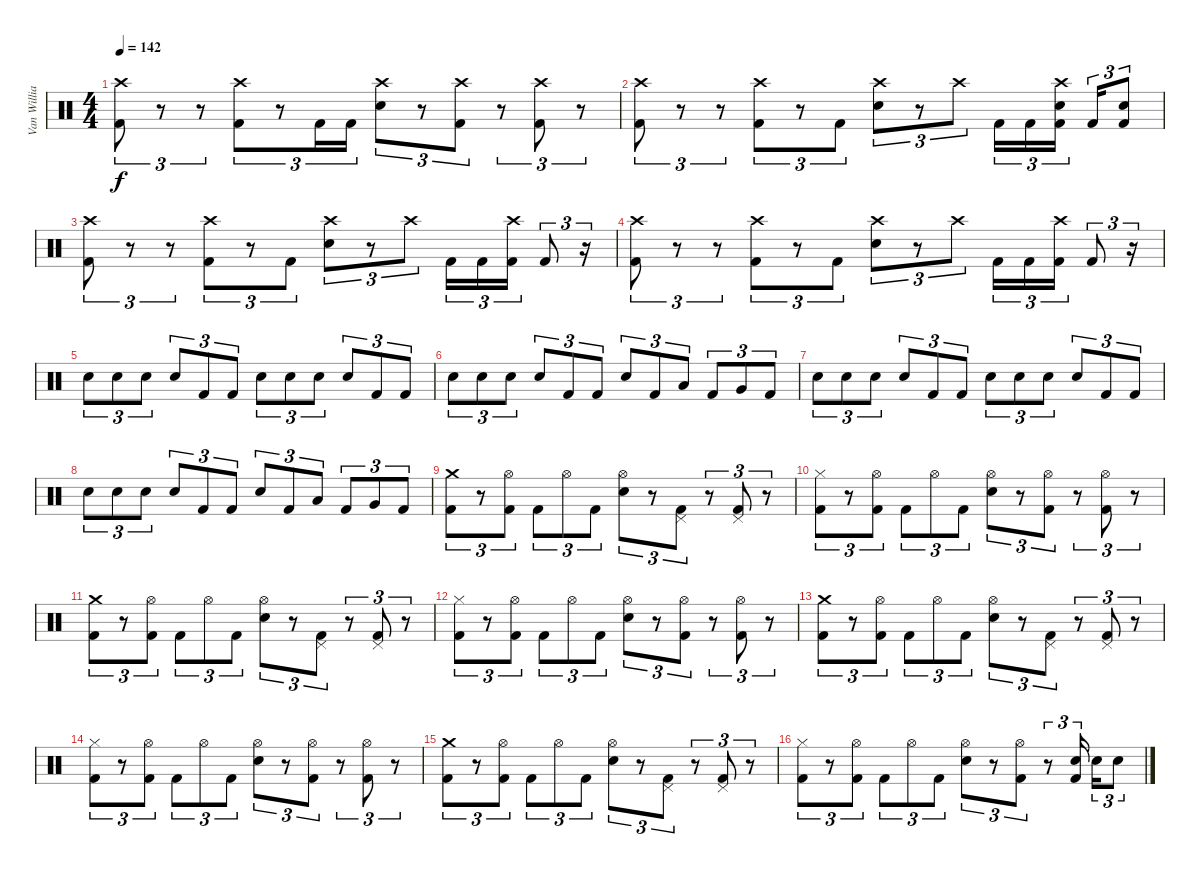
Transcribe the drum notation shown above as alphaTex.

\track ("Van Williams" "Van Willia") {instrument percussion}
\staff {score}
\articulation defaults
\ts (4 4)
\tempo 142
\clef neutral
\ks c
("Crash high (hit)" "Kick (hit) 2").8{tu (3 2) dy f} r.8{tu (3 2)} r.8{tu (3 2)} ("Crash high (hit)" "Kick (hit) 2").8{tu (3 2)} r.8{tu (3 2)} "Kick (hit) 2".16{tu (3 2)} "Kick (hit) 2".16{tu (3 2)} ("Crash high (hit)" "Electric Snare (hit)").8{tu (3 2)} r.8{tu (3 2)} ("Crash high (hit)" "Kick (hit) 2").8{tu (3 2)} r.8{tu (3 2)} ("Crash high (hit)" "Kick (hit) 2").8{tu (3 2)} r.8{tu (3 2)} |
("Crash high (hit)" "Kick (hit) 2").8{tu (3 2)} r.8{tu (3 2)} r.8{tu (3 2)} ("Crash high (hit)" "Kick (hit) 2").8{tu (3 2)} r.8{tu (3 2)} "Kick (hit) 2".8{tu (3 2)} ("Crash high (hit)" "Electric Snare (hit)").8{tu (3 2)} r.8{tu (3 2)} "Crash high (hit)".8{tu (3 2)} "Kick (hit) 2".16{tu (3 2)} "Kick (hit) 2".16{tu (3 2)} ("Crash high (hit)" "Kick (hit) 2" "Electric Snare (hit)").16{tu (3 2)} "Kick (hit) 2".16{tu (3 2)} ("Kick (hit) 2" "Electric Snare (hit)").8{tu (3 2)} |
("Crash high (hit)" "Kick (hit) 2").8{tu (3 2)} r.8{tu (3 2)} r.8{tu (3 2)} ("Crash high (hit)" "Kick (hit) 2").8{tu (3 2)} r.8{tu (3 2)} "Kick (hit) 2".8{tu (3 2)} ("Crash high (hit)" "Electric Snare (hit)").8{tu (3 2)} r.8{tu (3 2)} "Crash high (hit)".8{tu (3 2)} "Kick (hit) 2".16{tu (3 2)} "Kick (hit) 2".16{tu (3 2)} ("Crash high (hit)" "Kick (hit) 2").16{tu (3 2)} "Kick (hit) 2".8{tu (3 2)} r.16{tu (3 2)} |
("Crash high (hit)" "Kick (hit) 2").8{tu (3 2)} r.8{tu (3 2)} r.8{tu (3 2)} ("Crash high (hit)" "Kick (hit) 2").8{tu (3 2)} r.8{tu (3 2)} "Kick (hit) 2".8{tu (3 2)} ("Crash high (hit)" "Electric Snare (hit)").8{tu (3 2)} r.8{tu (3 2)} "Crash high (hit)".8{tu (3 2)} "Kick (hit) 2".16{tu (3 2)} "Kick (hit) 2".16{tu (3 2)} ("Crash high (hit)" "Kick (hit) 2").16{tu (3 2)} "Kick (hit) 2".8{tu (3 2)} r.16{tu (3 2)} |
"Electric Snare (hit)".8{tu (3 2)} "Electric Snare (hit)".8{tu (3 2)} "Electric Snare (hit)".8{tu (3 2)} "Electric Snare (hit)".8{tu (3 2)} "Kick (hit) 2".8{tu (3 2)} "Kick (hit) 2".8{tu (3 2)} "Electric Snare (hit)".8{tu (3 2)} "Electric Snare (hit)".8{tu (3 2)} "Electric Snare (hit)".8{tu (3 2)} "Electric Snare (hit)".8{tu (3 2)} "Kick (hit) 2".8{tu (3 2)} "Kick (hit) 2".8{tu (3 2)} |
"Electric Snare (hit)".8{tu (3 2)} "Electric Snare (hit)".8{tu (3 2)} "Electric Snare (hit)".8{tu (3 2)} "Electric Snare (hit)".8{tu (3 2)} "Kick (hit) 2".8{tu (3 2)} "Kick (hit) 2".8{tu (3 2)} "Electric Snare (hit)".8{tu (3 2)} "Kick (hit) 2".8{tu (3 2)} "Low Tom (hit)".8{tu (3 2)} "Kick (hit) 2".8{tu (3 2)} "Very Low Tom (hit)".8{tu (3 2)} "Kick (hit) 2".8{tu (3 2)} |
"Electric Snare (hit)".8{tu (3 2)} "Electric Snare (hit)".8{tu (3 2)} "Electric Snare (hit)".8{tu (3 2)} "Electric Snare (hit)".8{tu (3 2)} "Kick (hit) 2".8{tu (3 2)} "Kick (hit) 2".8{tu (3 2)} "Electric Snare (hit)".8{tu (3 2)} "Electric Snare (hit)".8{tu (3 2)} "Electric Snare (hit)".8{tu (3 2)} "Electric Snare (hit)".8{tu (3 2)} "Kick (hit) 2".8{tu (3 2)} "Kick (hit) 2".8{tu (3 2)} |
"Electric Snare (hit)".8{tu (3 2)} "Electric Snare (hit)".8{tu (3 2)} "Electric Snare (hit)".8{tu (3 2)} "Electric Snare (hit)".8{tu (3 2)} "Kick (hit) 2".8{tu (3 2)} "Kick (hit) 2".8{tu (3 2)} "Electric Snare (hit)".8{tu (3 2)} "Kick (hit) 2".8{tu (3 2)} "Low Tom (hit)".8{tu (3 2)} "Kick (hit) 2".8{tu (3 2)} "Very Low Tom (hit)".8{tu (3 2)} "Kick (hit) 2".8{tu (3 2)} |
("Crash medium (hit)" "Kick (hit) 2").8{tu (3 2)} r.8{tu (3 2)} ("Hi-Hat (open)" "Kick (hit) 2").8{tu (3 2)} "Kick (hit) 2".8{tu (3 2)} "Hi-Hat (open)".8{tu (3 2)} "Kick (hit) 2".8{tu (3 2)} ("Hi-Hat (open)" "Electric Snare (hit)").8{tu (3 2)} r.8{tu (3 2)} ("Pedal Hi-Hat (hit)" "Kick (hit) 2").8{tu (3 2)} r.8{tu (3 2)} ("Pedal Hi-Hat (hit)" "Kick (hit) 2").8{tu (3 2)} r.8{tu (3 2)} |
("Hi-Hat (closed)" "Kick (hit) 2").8{tu (3 2)} r.8{tu (3 2)} ("Hi-Hat (open)" "Kick (hit) 2").8{tu (3 2)} "Kick (hit) 2".8{tu (3 2)} "Hi-Hat (open)".8{tu (3 2)} "Kick (hit) 2".8{tu (3 2)} ("Hi-Hat (open)" "Electric Snare (hit)").8{tu (3 2)} r.8{tu (3 2)} ("Hi-Hat (open)" "Kick (hit) 2").8{tu (3 2)} r.8{tu (3 2)} ("Hi-Hat (open)" "Kick (hit) 2").8{tu (3 2)} r.8{tu (3 2)} |
("Crash medium (hit)" "Kick (hit) 2").8{tu (3 2)} r.8{tu (3 2)} ("Hi-Hat (open)" "Kick (hit) 2").8{tu (3 2)} "Kick (hit) 2".8{tu (3 2)} "Hi-Hat (open)".8{tu (3 2)} "Kick (hit) 2".8{tu (3 2)} ("Hi-Hat (open)" "Electric Snare (hit)").8{tu (3 2)} r.8{tu (3 2)} ("Pedal Hi-Hat (hit)" "Kick (hit) 2").8{tu (3 2)} r.8{tu (3 2)} ("Pedal Hi-Hat (hit)" "Kick (hit) 2").8{tu (3 2)} r.8{tu (3 2)} |
("Hi-Hat (closed)" "Kick (hit) 2").8{tu (3 2)} r.8{tu (3 2)} ("Hi-Hat (open)" "Kick (hit) 2").8{tu (3 2)} "Kick (hit) 2".8{tu (3 2)} "Hi-Hat (open)".8{tu (3 2)} "Kick (hit) 2".8{tu (3 2)} ("Hi-Hat (open)" "Electric Snare (hit)").8{tu (3 2)} r.8{tu (3 2)} ("Hi-Hat (open)" "Kick (hit) 2").8{tu (3 2)} r.8{tu (3 2)} ("Hi-Hat (open)" "Kick (hit) 2").8{tu (3 2)} r.8{tu (3 2)} |
("Crash medium (hit)" "Kick (hit) 2").8{tu (3 2)} r.8{tu (3 2)} ("Hi-Hat (open)" "Kick (hit) 2").8{tu (3 2)} "Kick (hit) 2".8{tu (3 2)} "Hi-Hat (open)".8{tu (3 2)} "Kick (hit) 2".8{tu (3 2)} ("Hi-Hat (open)" "Electric Snare (hit)").8{tu (3 2)} r.8{tu (3 2)} ("Pedal Hi-Hat (hit)" "Kick (hit) 2").8{tu (3 2)} r.8{tu (3 2)} ("Pedal Hi-Hat (hit)" "Kick (hit) 2").8{tu (3 2)} r.8{tu (3 2)} |
("Hi-Hat (closed)" "Kick (hit) 2").8{tu (3 2)} r.8{tu (3 2)} ("Hi-Hat (open)" "Kick (hit) 2").8{tu (3 2)} "Kick (hit) 2".8{tu (3 2)} "Hi-Hat (open)".8{tu (3 2)} "Kick (hit) 2".8{tu (3 2)} ("Hi-Hat (open)" "Electric Snare (hit)").8{tu (3 2)} r.8{tu (3 2)} ("Hi-Hat (open)" "Kick (hit) 2").8{tu (3 2)} r.8{tu (3 2)} ("Hi-Hat (open)" "Kick (hit) 2").8{tu (3 2)} r.8{tu (3 2)} |
("Crash medium (hit)" "Kick (hit) 2").8{tu (3 2)} r.8{tu (3 2)} ("Hi-Hat (open)" "Kick (hit) 2").8{tu (3 2)} "Kick (hit) 2".8{tu (3 2)} "Hi-Hat (open)".8{tu (3 2)} "Kick (hit) 2".8{tu (3 2)} ("Hi-Hat (open)" "Electric Snare (hit)").8{tu (3 2)} r.8{tu (3 2)} ("Pedal Hi-Hat (hit)" "Kick (hit) 2").8{tu (3 2)} r.8{tu (3 2)} ("Pedal Hi-Hat (hit)" "Kick (hit) 2").8{tu (3 2)} r.8{tu (3 2)} |
("Hi-Hat (closed)" "Kick (hit) 2").8{tu (3 2)} r.8{tu (3 2)} ("Hi-Hat (open)" "Kick (hit) 2").8{tu (3 2)} "Kick (hit) 2".8{tu (3 2)} "Hi-Hat (open)".8{tu (3 2)} "Kick (hit) 2".8{tu (3 2)} ("Hi-Hat (open)" "Electric Snare (hit)").8{tu (3 2)} r.8{tu (3 2)} ("Hi-Hat (open)" "Kick (hit) 2").8{tu (3 2)} r.8{tu (3 2)} ("Kick (hit) 2" "Electric Snare (hit)").16{tu (3 2)} "Electric Snare (hit)".16{tu (3 2)} "Electric Snare (hit)".8{tu (3 2)}
